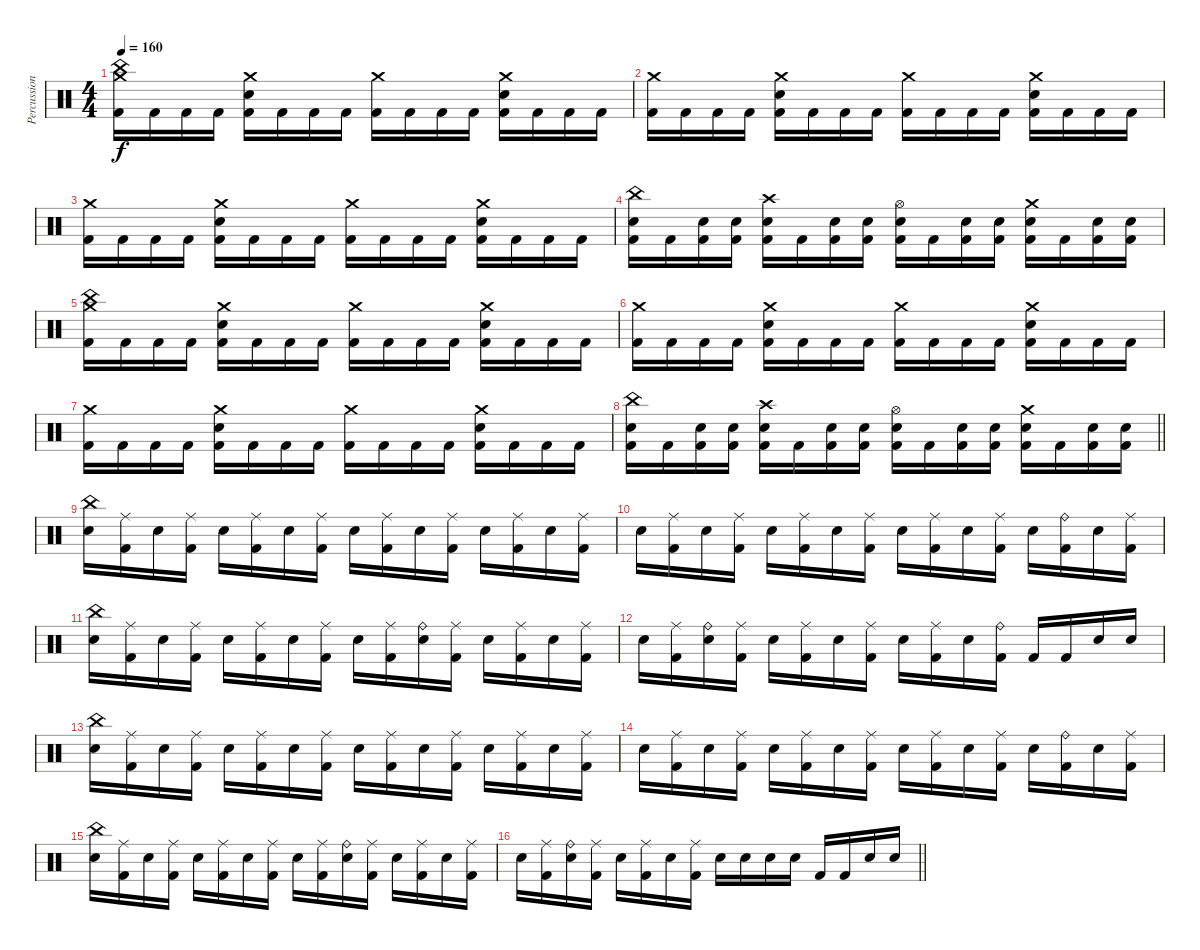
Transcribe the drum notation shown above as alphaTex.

\track ("Percussions" "Percussion") {instrument percussion}
\staff {score}
\articulation defaults
\ts (4 4)
\tempo 160
\clef neutral
\ks c
("Crash medium (hit)" "China (hit)" "Kick (hit) 2").16{dy f} "Kick (hit) 2".16 "Kick (hit) 2".16 "Kick (hit) 2".16 ("Crash medium (hit)" "Electric Snare (hit)" "Kick (hit) 2").16 "Kick (hit) 2".16 "Kick (hit) 2".16 "Kick (hit) 2".16 ("Crash medium (hit)" "Kick (hit) 2").16 "Kick (hit) 2".16 "Kick (hit) 2".16 "Kick (hit) 2".16 ("Crash medium (hit)" "Electric Snare (hit)" "Kick (hit) 2").16 "Kick (hit) 2".16 "Kick (hit) 2".16 "Kick (hit) 2".16 |
("Crash medium (hit)" "Kick (hit) 2").16 "Kick (hit) 2".16 "Kick (hit) 2".16 "Kick (hit) 2".16 ("Crash medium (hit)" "Electric Snare (hit)" "Kick (hit) 2").16 "Kick (hit) 2".16 "Kick (hit) 2".16 "Kick (hit) 2".16 ("Crash medium (hit)" "Kick (hit) 2").16 "Kick (hit) 2".16 "Kick (hit) 2".16 "Kick (hit) 2".16 ("Crash medium (hit)" "Electric Snare (hit)" "Kick (hit) 2").16 "Kick (hit) 2".16 "Kick (hit) 2".16 "Kick (hit) 2".16 |
("Crash medium (hit)" "Kick (hit) 2").16 "Kick (hit) 2".16 "Kick (hit) 2".16 "Kick (hit) 2".16 ("Crash medium (hit)" "Electric Snare (hit)" "Kick (hit) 2").16 "Kick (hit) 2".16 "Kick (hit) 2".16 "Kick (hit) 2".16 ("Crash medium (hit)" "Kick (hit) 2").16 "Kick (hit) 2".16 "Kick (hit) 2".16 "Kick (hit) 2".16 ("Crash medium (hit)" "Electric Snare (hit)" "Kick (hit) 2").16 "Kick (hit) 2".16 "Kick (hit) 2".16 "Kick (hit) 2".16 |
("China (hit)" "Electric Snare (hit)" "Kick (hit) 2").16 "Kick (hit) 2".16 ("Electric Snare (hit)" "Kick (hit) 2").16 ("Electric Snare (hit)" "Kick (hit) 2").16 ("Crash high (hit)" "Electric Snare (hit)" "Kick (hit) 2").16 "Kick (hit) 2".16 ("Electric Snare (hit)" "Kick (hit) 2").16 ("Electric Snare (hit)" "Kick (hit) 2").16 ("Hi-Hat (open)" "Electric Snare (hit)" "Kick (hit) 2").16 "Kick (hit) 2".16 ("Electric Snare (hit)" "Kick (hit) 2").16 ("Electric Snare (hit)" "Kick (hit) 2").16 ("Crash medium (hit)" "Electric Snare (hit)" "Kick (hit) 2").16 "Kick (hit) 2".16 ("Electric Snare (hit)" "Kick (hit) 2").16 ("Electric Snare (hit)" "Kick (hit) 2").16 |
("Crash medium (hit)" "China (hit)" "Kick (hit) 2").16 "Kick (hit) 2".16 "Kick (hit) 2".16 "Kick (hit) 2".16 ("Crash medium (hit)" "Electric Snare (hit)" "Kick (hit) 2").16 "Kick (hit) 2".16 "Kick (hit) 2".16 "Kick (hit) 2".16 ("Crash medium (hit)" "Kick (hit) 2").16 "Kick (hit) 2".16 "Kick (hit) 2".16 "Kick (hit) 2".16 ("Crash medium (hit)" "Electric Snare (hit)" "Kick (hit) 2").16 "Kick (hit) 2".16 "Kick (hit) 2".16 "Kick (hit) 2".16 |
("Crash medium (hit)" "Kick (hit) 2").16 "Kick (hit) 2".16 "Kick (hit) 2".16 "Kick (hit) 2".16 ("Crash medium (hit)" "Electric Snare (hit)" "Kick (hit) 2").16 "Kick (hit) 2".16 "Kick (hit) 2".16 "Kick (hit) 2".16 ("Crash medium (hit)" "Kick (hit) 2").16 "Kick (hit) 2".16 "Kick (hit) 2".16 "Kick (hit) 2".16 ("Crash medium (hit)" "Electric Snare (hit)" "Kick (hit) 2").16 "Kick (hit) 2".16 "Kick (hit) 2".16 "Kick (hit) 2".16 |
("Crash medium (hit)" "Kick (hit) 2").16 "Kick (hit) 2".16 "Kick (hit) 2".16 "Kick (hit) 2".16 ("Crash medium (hit)" "Electric Snare (hit)" "Kick (hit) 2").16 "Kick (hit) 2".16 "Kick (hit) 2".16 "Kick (hit) 2".16 ("Crash medium (hit)" "Kick (hit) 2").16 "Kick (hit) 2".16 "Kick (hit) 2".16 "Kick (hit) 2".16 ("Crash medium (hit)" "Electric Snare (hit)" "Kick (hit) 2").16 "Kick (hit) 2".16 "Kick (hit) 2".16 "Kick (hit) 2".16 |
\barLineRight lightlight
("China (hit)" "Electric Snare (hit)" "Kick (hit) 2").16 "Kick (hit) 2".16 ("Electric Snare (hit)" "Kick (hit) 2").16 ("Electric Snare (hit)" "Kick (hit) 2").16 ("Crash high (hit)" "Electric Snare (hit)" "Kick (hit) 2").16 "Kick (hit) 2".16 ("Electric Snare (hit)" "Kick (hit) 2").16 ("Electric Snare (hit)" "Kick (hit) 2").16 ("Hi-Hat (open)" "Electric Snare (hit)" "Kick (hit) 2").16 "Kick (hit) 2".16 ("Electric Snare (hit)" "Kick (hit) 2").16 ("Electric Snare (hit)" "Kick (hit) 2").16 ("Crash medium (hit)" "Electric Snare (hit)" "Kick (hit) 2").16 "Kick (hit) 2".16 ("Electric Snare (hit)" "Kick (hit) 2").16 ("Electric Snare (hit)" "Kick (hit) 2").16 |
("China (hit)" "Electric Snare (hit)").16 ("Ride (middle)" "Kick (hit) 2").16 "Electric Snare (hit)".16 ("Ride (middle)" "Kick (hit) 2").16 "Electric Snare (hit)".16 ("Ride (middle)" "Kick (hit) 2").16 "Electric Snare (hit)".16 ("Ride (middle)" "Kick (hit) 2").16 "Electric Snare (hit)".16 ("Ride (middle)" "Kick (hit) 2").16 "Electric Snare (hit)".16 ("Ride (middle)" "Kick (hit) 2").16 "Electric Snare (hit)".16 ("Ride (middle)" "Kick (hit) 2").16 "Electric Snare (hit)".16 ("Ride (middle)" "Kick (hit) 2").16 |
"Electric Snare (hit)".16 ("Ride (middle)" "Kick (hit) 2").16 "Electric Snare (hit)".16 ("Ride (middle)" "Kick (hit) 2").16 "Electric Snare (hit)".16 ("Ride (middle)" "Kick (hit) 2").16 "Electric Snare (hit)".16 ("Ride (middle)" "Kick (hit) 2").16 "Electric Snare (hit)".16 ("Ride (middle)" "Kick (hit) 2").16 "Electric Snare (hit)".16 ("Ride (middle)" "Kick (hit) 2").16 "Electric Snare (hit)".16 ("Ride (bell)" "Kick (hit) 2").16 "Electric Snare (hit)".16 ("Ride (middle)" "Kick (hit) 2").16 |
("China (hit)" "Electric Snare (hit)").16 ("Ride (middle)" "Kick (hit) 2").16 "Electric Snare (hit)".16 ("Ride (middle)" "Kick (hit) 2").16 "Electric Snare (hit)".16 ("Ride (middle)" "Kick (hit) 2").16 "Electric Snare (hit)".16 ("Ride (middle)" "Kick (hit) 2").16 "Electric Snare (hit)".16 ("Ride (middle)" "Kick (hit) 2").16 ("Ride (bell)" "Electric Snare (hit)").16 ("Ride (middle)" "Kick (hit) 2").16 "Electric Snare (hit)".16 ("Ride (middle)" "Kick (hit) 2").16 "Electric Snare (hit)".16 ("Ride (middle)" "Kick (hit) 2").16 |
"Electric Snare (hit)".16 ("Ride (middle)" "Kick (hit) 2").16 ("Ride (bell)" "Electric Snare (hit)").16 ("Ride (middle)" "Kick (hit) 2").16 "Electric Snare (hit)".16 ("Ride (middle)" "Kick (hit) 2").16 "Electric Snare (hit)".16 ("Ride (middle)" "Kick (hit) 2").16 "Electric Snare (hit)".16 ("Ride (middle)" "Kick (hit) 2").16 "Electric Snare (hit)".16 ("Ride (bell)" "Kick (hit) 2").16 "Kick (hit) 2".16 "Kick (hit) 2".16 "Electric Snare (hit)".16 "Electric Snare (hit)".16 |
("China (hit)" "Electric Snare (hit)").16 ("Ride (middle)" "Kick (hit) 2").16 "Electric Snare (hit)".16 ("Ride (middle)" "Kick (hit) 2").16 "Electric Snare (hit)".16 ("Ride (middle)" "Kick (hit) 2").16 "Electric Snare (hit)".16 ("Ride (middle)" "Kick (hit) 2").16 "Electric Snare (hit)".16 ("Ride (middle)" "Kick (hit) 2").16 "Electric Snare (hit)".16 ("Ride (middle)" "Kick (hit) 2").16 "Electric Snare (hit)".16 ("Ride (middle)" "Kick (hit) 2").16 "Electric Snare (hit)".16 ("Ride (middle)" "Kick (hit) 2").16 |
"Electric Snare (hit)".16 ("Ride (middle)" "Kick (hit) 2").16 "Electric Snare (hit)".16 ("Ride (middle)" "Kick (hit) 2").16 "Electric Snare (hit)".16 ("Ride (middle)" "Kick (hit) 2").16 "Electric Snare (hit)".16 ("Ride (middle)" "Kick (hit) 2").16 "Electric Snare (hit)".16 ("Ride (middle)" "Kick (hit) 2").16 "Electric Snare (hit)".16 ("Ride (middle)" "Kick (hit) 2").16 "Electric Snare (hit)".16 ("Ride (bell)" "Kick (hit) 2").16 "Electric Snare (hit)".16 ("Ride (middle)" "Kick (hit) 2").16 |
("China (hit)" "Electric Snare (hit)").16 ("Ride (middle)" "Kick (hit) 2").16 "Electric Snare (hit)".16 ("Ride (middle)" "Kick (hit) 2").16 "Electric Snare (hit)".16 ("Ride (middle)" "Kick (hit) 2").16 "Electric Snare (hit)".16 ("Ride (middle)" "Kick (hit) 2").16 "Electric Snare (hit)".16 ("Ride (middle)" "Kick (hit) 2").16 ("Ride (bell)" "Electric Snare (hit)").16 ("Ride (middle)" "Kick (hit) 2").16 "Electric Snare (hit)".16 ("Ride (middle)" "Kick (hit) 2").16 "Electric Snare (hit)".16 ("Ride (middle)" "Kick (hit) 2").16 |
\barLineRight lightlight "Electric Snare (hit)".16
("Ride (middle)" "Kick (hit) 2").16 ("Ride (bell)" "Electric Snare (hit)").16 ("Ride (middle)" "Kick (hit) 2").16 "Electric Snare (hit)".16 ("Ride (middle)" "Kick (hit) 2").16 "Electric Snare (hit)".16 ("Ride (middle)" "Kick (hit) 2").16 "Electric Snare (hit)".16 "Electric Snare (hit)".16 "Electric Snare (hit)".16 "Electric Snare (hit)".16 "Kick (hit) 2".16 "Kick (hit) 2".16 "Electric Snare (hit)".16 "Electric Snare (hit)".16
